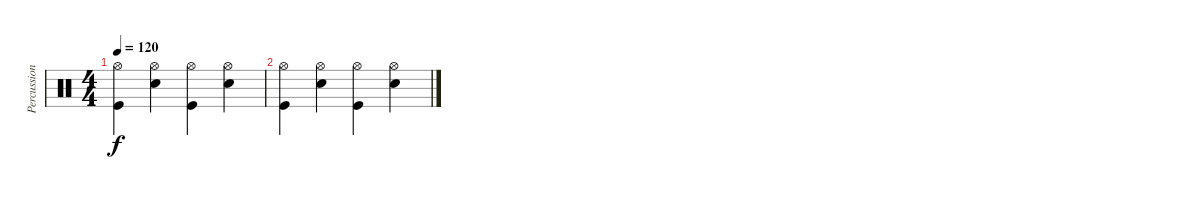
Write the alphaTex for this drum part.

\track ("Percussion" "Percussion") {instrument percussion}
\staff {score}
\articulation defaults
\ts (4 4)
\tempo 120
\clef neutral
\ks c
("Hi-Hat (open)" "Kick (hit)").4{dy f} ("Hi-Hat (open)" "Snare (hit) 2").4 ("Hi-Hat (open)" "Kick (hit)").4 ("Hi-Hat (open)" "Snare (hit) 2").4 |
("Hi-Hat (open)" "Kick (hit)").4 ("Hi-Hat (open)" "Snare (hit) 2").4 ("Hi-Hat (open)" "Kick (hit)").4 ("Hi-Hat (open)" "Snare (hit) 2").4
